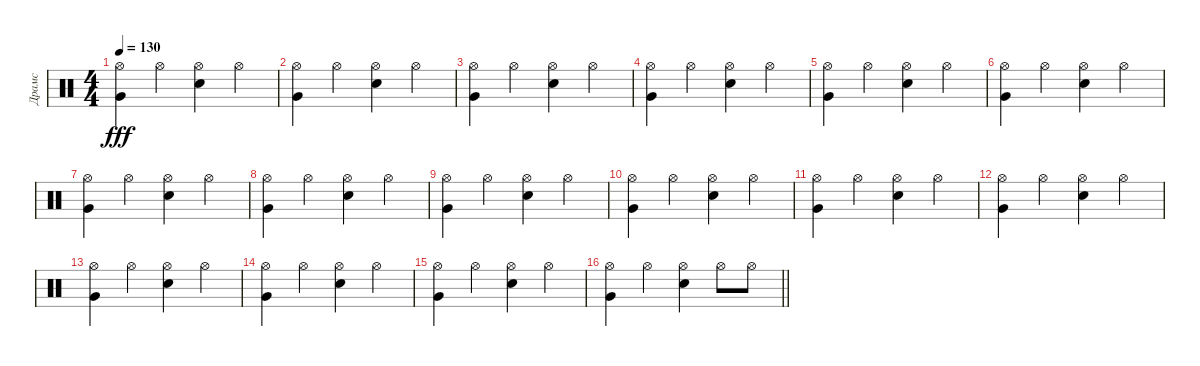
\track ("Драмс" "Драмс") {instrument percussion}
\staff {score}
\articulation defaults
\ts (4 4)
\tempo 130
\clef neutral
\ks c
("Hi-Hat (open)" "Very Low Tom (hit)").4{dy fff} "Hi-Hat (open)".4 ("Hi-Hat (open)" "Snare (hit) 2").4 "Hi-Hat (open)".4 |
("Hi-Hat (open)" "Very Low Tom (hit)").4 "Hi-Hat (open)".4 ("Hi-Hat (open)" "Snare (hit) 2").4 "Hi-Hat (open)".4 |
("Hi-Hat (open)" "Very Low Tom (hit)").4 "Hi-Hat (open)".4 ("Hi-Hat (open)" "Snare (hit) 2").4 "Hi-Hat (open)".4 |
("Hi-Hat (open)" "Very Low Tom (hit)").4 "Hi-Hat (open)".4 ("Hi-Hat (open)" "Snare (hit) 2").4 "Hi-Hat (open)".4 |
("Hi-Hat (open)" "Very Low Tom (hit)").4 "Hi-Hat (open)".4 ("Hi-Hat (open)" "Snare (hit) 2").4 "Hi-Hat (open)".4 |
("Hi-Hat (open)" "Very Low Tom (hit)").4 "Hi-Hat (open)".4 ("Hi-Hat (open)" "Snare (hit) 2").4 "Hi-Hat (open)".4 |
("Hi-Hat (open)" "Very Low Tom (hit)").4 "Hi-Hat (open)".4 ("Hi-Hat (open)" "Snare (hit) 2").4 "Hi-Hat (open)".4 |
("Hi-Hat (open)" "Very Low Tom (hit)").4 "Hi-Hat (open)".4 ("Hi-Hat (open)" "Snare (hit) 2").4 "Hi-Hat (open)".4 |
("Hi-Hat (open)" "Very Low Tom (hit)").4 "Hi-Hat (open)".4 ("Hi-Hat (open)" "Snare (hit) 2").4 "Hi-Hat (open)".4 |
("Hi-Hat (open)" "Very Low Tom (hit)").4 "Hi-Hat (open)".4 ("Hi-Hat (open)" "Snare (hit) 2").4 "Hi-Hat (open)".4 |
("Hi-Hat (open)" "Very Low Tom (hit)").4 "Hi-Hat (open)".4 ("Hi-Hat (open)" "Snare (hit) 2").4 "Hi-Hat (open)".4 |
("Hi-Hat (open)" "Very Low Tom (hit)").4 "Hi-Hat (open)".4 ("Hi-Hat (open)" "Snare (hit) 2").4 "Hi-Hat (open)".4 |
("Hi-Hat (open)" "Very Low Tom (hit)").4 "Hi-Hat (open)".4 ("Hi-Hat (open)" "Snare (hit) 2").4 "Hi-Hat (open)".4 |
("Hi-Hat (open)" "Very Low Tom (hit)").4 "Hi-Hat (open)".4 ("Hi-Hat (open)" "Snare (hit) 2").4 "Hi-Hat (open)".4 |
("Hi-Hat (open)" "Very Low Tom (hit)").4 "Hi-Hat (open)".4 ("Hi-Hat (open)" "Snare (hit) 2").4 "Hi-Hat (open)".4 |
\barLineRight lightlight
("Hi-Hat (open)" "Very Low Tom (hit)").4 "Hi-Hat (open)".4 ("Hi-Hat (open)" "Snare (hit) 2").4 "Hi-Hat (open)".8 "Hi-Hat (open)".8
